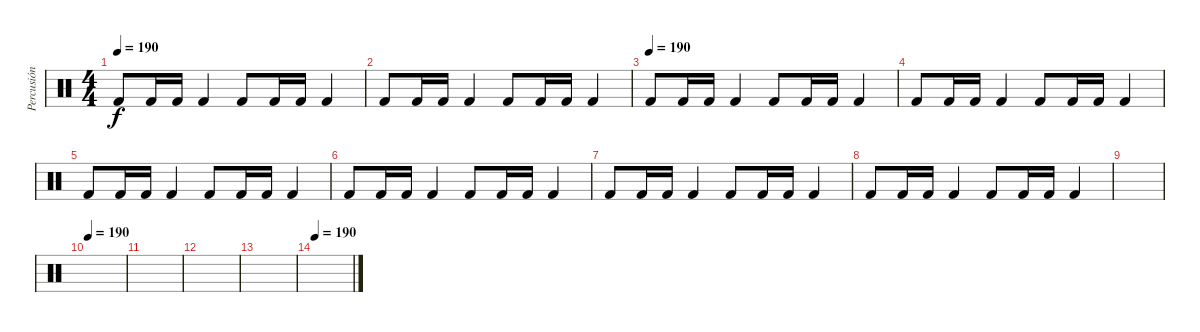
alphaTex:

\track ("Percusión" "Percusión") {instrument percussion}
\staff {score}
\articulation defaults
\ts (4 4)
\tempo 190
\clef neutral
\ks c "Kick (hit) 2".8{dy f} "Kick (hit) 2".16 "Kick (hit) 2".16 "Kick (hit) 2".4 "Kick (hit) 2".8 "Kick (hit) 2".16 "Kick (hit) 2".16 "Kick (hit) 2".4
|
"Kick (hit) 2".8 "Kick (hit) 2".16 "Kick (hit) 2".16 "Kick (hit) 2".4 "Kick (hit) 2".8 "Kick (hit) 2".16 "Kick (hit) 2".16 "Kick (hit) 2".4 |
\tempo (190)
"Kick (hit) 2".8 "Kick (hit) 2".16 "Kick (hit) 2".16 "Kick (hit) 2".4 "Kick (hit) 2".8 "Kick (hit) 2".16 "Kick (hit) 2".16 "Kick (hit) 2".4 |
"Kick (hit) 2".8 "Kick (hit) 2".16 "Kick (hit) 2".16 "Kick (hit) 2".4 "Kick (hit) 2".8 "Kick (hit) 2".16 "Kick (hit) 2".16 "Kick (hit) 2".4 |
"Kick (hit) 2".8 "Kick (hit) 2".16 "Kick (hit) 2".16 "Kick (hit) 2".4 "Kick (hit) 2".8 "Kick (hit) 2".16 "Kick (hit) 2".16 "Kick (hit) 2".4 |
"Kick (hit) 2".8 "Kick (hit) 2".16 "Kick (hit) 2".16 "Kick (hit) 2".4 "Kick (hit) 2".8 "Kick (hit) 2".16 "Kick (hit) 2".16 "Kick (hit) 2".4 |
"Kick (hit) 2".8 "Kick (hit) 2".16 "Kick (hit) 2".16 "Kick (hit) 2".4 "Kick (hit) 2".8 "Kick (hit) 2".16 "Kick (hit) 2".16 "Kick (hit) 2".4 |
"Kick (hit) 2".8 "Kick (hit) 2".16 "Kick (hit) 2".16 "Kick (hit) 2".4 "Kick (hit) 2".8 "Kick (hit) 2".16 "Kick (hit) 2".16 "Kick (hit) 2".4 |
|
\tempo 190
|
|
|
|
\tempo 190
